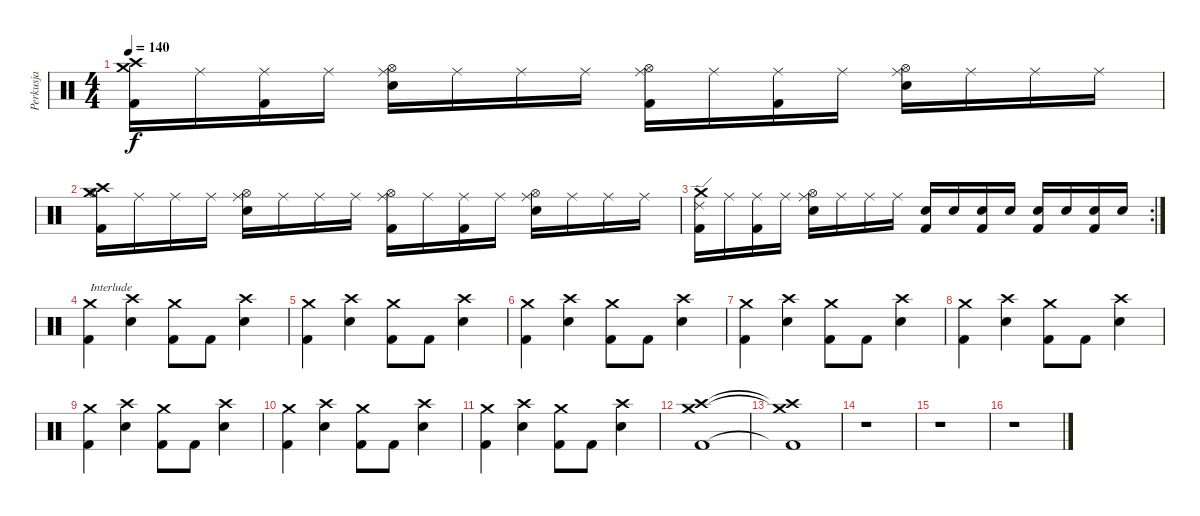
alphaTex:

\track ("Perkusja" "Perkusja") {instrument percussion}
\staff {score}
\articulation defaults
\ts (4 4)
\tempo 140
\clef neutral
\ks c
("Crash medium (hit)" "Crash high (hit)" "Kick (hit) 2").16{dy f} "Ride (middle)".16 ("Ride (middle)" "Kick (hit) 2").16 "Ride (middle)".16 ("Ride (middle)" "Hi-Hat (open)" "Snare (hit) 2").16 "Ride (middle)".16 "Ride (middle)".16 "Ride (middle)".16 ("Ride (middle)" "Hi-Hat (open)" "Kick (hit) 2").16 "Ride (middle)".16 ("Ride (middle)" "Kick (hit) 2").16 "Ride (middle)".16 ("Ride (middle)" "Hi-Hat (open)" "Snare (hit) 2").16 "Ride (middle)".16 "Ride (middle)".16 "Ride (middle)".16 |
("Crash medium (hit)" "Crash high (hit)" "Hi-Hat (open)" "Kick (hit) 2").16 "Ride (middle)".16 "Ride (middle)".16 "Ride (middle)".16 ("Ride (middle)" "Hi-Hat (open)" "Snare (hit) 2").16 "Ride (middle)".16 "Ride (middle)".16 "Ride (middle)".16 ("Ride (middle)" "Hi-Hat (open)" "Kick (hit) 2").16 "Ride (middle)".16 ("Ride (middle)" "Kick (hit) 2").16 "Ride (middle)".16 ("Ride (middle)" "Hi-Hat (open)" "Snare (hit) 2").16 "Ride (middle)".16 "Ride (middle)".16 "Ride (middle)".16 |
\rc 2
("Crash medium (hit)" "Ride (edge) 2" "Kick (hit) 2").16 "Ride (middle)".16 ("Ride (middle)" "Kick (hit) 2").16 "Ride (middle)".16 ("Ride (middle)" "Hi-Hat (open)" "Snare (hit) 2").16 "Ride (middle)".16 "Ride (middle)".16 "Ride (middle)".16 ("Snare (hit) 2" "Kick (hit) 2").16 "Snare (hit) 2".16 ("Snare (hit) 2" "Kick (hit) 2").16 "Snare (hit) 2".16 ("Snare (hit) 2" "Kick (hit) 2").16 "Snare (hit) 2".16 ("Snare (hit) 2" "Kick (hit) 2").16 "Snare (hit) 2".16 |
("Crash medium (hit)" "Kick (hit) 2").4{txt "Interlude"} ("Crash high (hit)" "Snare (hit) 2").4 ("Crash medium (hit)" "Kick (hit) 2").8 "Kick (hit) 2".8 ("Crash high (hit)" "Snare (hit) 2").4 |
("Crash medium (hit)" "Kick (hit) 2").4 ("Crash high (hit)" "Snare (hit) 2").4 ("Crash medium (hit)" "Kick (hit) 2").8 "Kick (hit) 2".8 ("Crash high (hit)" "Snare (hit) 2").4 |
("Crash medium (hit)" "Kick (hit) 2").4 ("Crash high (hit)" "Snare (hit) 2").4 ("Crash medium (hit)" "Kick (hit) 2").8 "Kick (hit) 2".8 ("Crash high (hit)" "Snare (hit) 2").4 |
("Crash medium (hit)" "Kick (hit) 2").4 ("Crash high (hit)" "Snare (hit) 2").4 ("Crash medium (hit)" "Kick (hit) 2").8 "Kick (hit) 2".8 ("Crash high (hit)" "Snare (hit) 2").4 |
("Crash medium (hit)" "Kick (hit) 2").4 ("Crash high (hit)" "Snare (hit) 2").4 ("Crash medium (hit)" "Kick (hit) 2").8 "Kick (hit) 2".8 ("Crash high (hit)" "Snare (hit) 2").4 |
("Crash medium (hit)" "Kick (hit) 2").4 ("Crash high (hit)" "Snare (hit) 2").4 ("Crash medium (hit)" "Kick (hit) 2").8 "Kick (hit) 2".8 ("Crash high (hit)" "Snare (hit) 2").4 |
("Crash medium (hit)" "Kick (hit) 2").4 ("Crash high (hit)" "Snare (hit) 2").4 ("Crash medium (hit)" "Kick (hit) 2").8 "Kick (hit) 2".8 ("Crash high (hit)" "Snare (hit) 2").4 |
("Crash medium (hit)" "Kick (hit) 2").4 ("Crash high (hit)" "Snare (hit) 2").4 ("Crash medium (hit)" "Kick (hit) 2").8 "Kick (hit) 2".8 ("Crash high (hit)" "Snare (hit) 2").4 |
("Crash medium (hit)" "Crash high (hit)" "Kick (hit) 2").1 |
("Crash medium (hit)"{t} "Crash high (hit)"{t} "Kick (hit) 2"{t}).1 |
r.1 |
r.1 |
r.1
